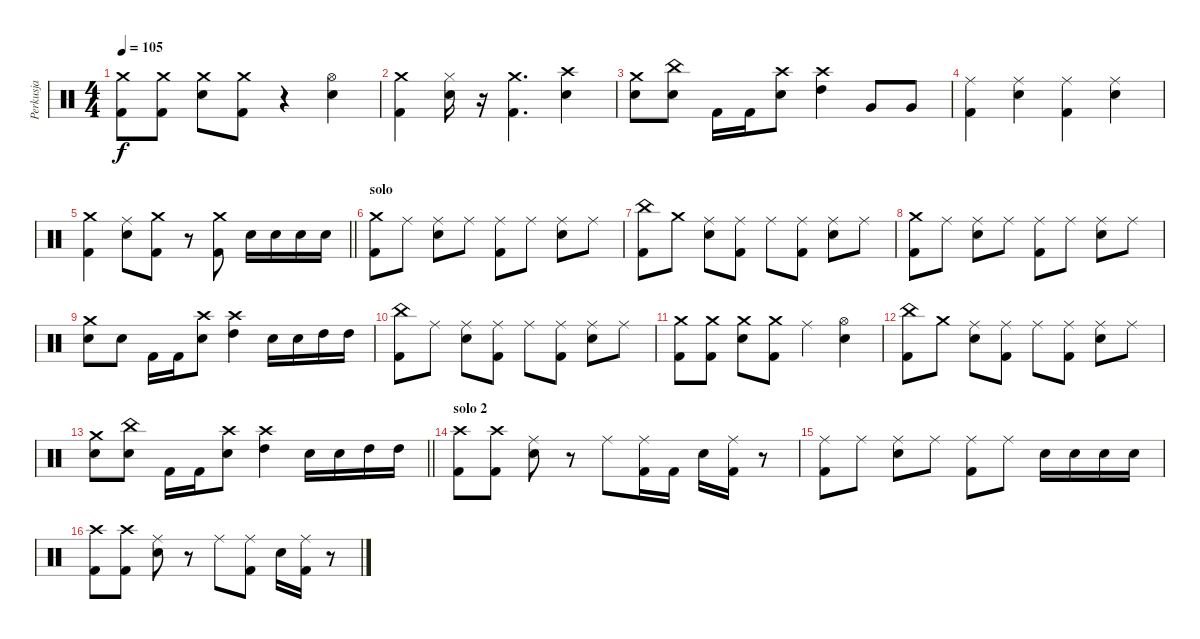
\track ("Perkusja" "Perkusja") {instrument percussion}
\staff {score}
\articulation defaults
\ts (4 4)
\tempo 105
\clef neutral
\ks c
("Crash medium (hit)" "Kick (hit) 2").8{dy f} ("Crash medium (hit)" "Kick (hit) 2").8 ("Crash medium (hit)" "Snare (hit) 2").8 ("Crash medium (hit)" "Kick (hit) 2").8 r.4 ("Snare (hit) 2" "Hi-Hat (open)").4 |
("Kick (hit) 2" "Crash medium (hit)").4 ("Snare (hit) 2" "Hi-Hat (closed)").16 r.16 ("Kick (hit) 2" "Crash medium (hit)").4{d} ("Snare (hit) 2" "Crash high (hit)").4 |
("Crash medium (hit)" "Snare (hit) 2").8 ("China (hit)" "Snare (hit) 2").8 "Kick (hit) 2".16 "Kick (hit) 2".16 ("Crash high (hit)" "Snare (hit) 2").8 ("Crash high (hit)" "High Tom (hit)").4 "Very Low Tom (hit)".8 "Very Low Tom (hit)".8 |
("Ride (middle)" "Kick (hit) 2").4 ("Ride (middle)" "Snare (hit) 2").4 ("Ride (middle)" "Kick (hit) 2").4 ("Ride (middle)" "Snare (hit) 2").4 |
\barLineRight lightlight
("Crash medium (hit)" "Kick (hit) 2").4 ("Ride (middle)" "Snare (hit) 2").8 ("Crash medium (hit)" "Kick (hit) 2").8 r.8 ("Crash medium (hit)" "Kick (hit) 2").8 "Snare (hit) 2".16 "Snare (hit) 2".16 "Snare (hit) 2".16 "Snare (hit) 2".16 |
\section ("" "solo")
("Crash medium (hit)" "Kick (hit) 2").8 "Ride (middle)".8 ("Ride (middle)" "Snare (hit) 2").8 "Ride (middle)".8 ("Ride (middle)" "Kick (hit) 2").8 "Ride (middle)".8 ("Ride (middle)" "Snare (hit) 2").8 "Ride (middle)".8 |
("China (hit)" "Kick (hit) 2").8 "Crash medium (hit)".8 ("Ride (middle)" "Snare (hit) 2").8 ("Ride (middle)" "Kick (hit) 2").8 "Ride (middle)".8 ("Ride (middle)" "Kick (hit) 2").8 ("Ride (middle)" "Snare (hit) 2").8 "Ride (middle)".8 |
("Crash medium (hit)" "Kick (hit) 2").8 "Ride (middle)".8 ("Ride (middle)" "Snare (hit) 2").8 "Ride (middle)".8 ("Ride (middle)" "Kick (hit) 2").8 "Ride (middle)".8 ("Ride (middle)" "Snare (hit) 2").8 "Ride (middle)".8 |
("Crash medium (hit)" "Snare (hit) 2").8 "Snare (hit) 2".8 "Kick (hit) 2".16 "Kick (hit) 2".16 ("Crash high (hit)" "Snare (hit) 2").8 ("Crash high (hit)" "High Tom (hit)").4 "Snare (hit) 2".16 "Snare (hit) 2".16 "High Tom (hit)".16 "High Tom (hit)".16 |
("China (hit)" "Kick (hit) 2").8 "Ride (middle)".8 ("Ride (middle)" "Snare (hit) 2").8 ("Ride (middle)" "Kick (hit) 2").8 "Ride (middle)".8 ("Ride (middle)" "Kick (hit) 2").8 ("Ride (middle)" "Snare (hit) 2").8 "Ride (middle)".8 |
("Crash medium (hit)" "Kick (hit) 2").8 ("Crash medium (hit)" "Kick (hit) 2").8 ("Crash medium (hit)" "Snare (hit) 2").8 ("Crash medium (hit)" "Kick (hit) 2").8 "Ride (middle)".4 ("Snare (hit) 2" "Hi-Hat (open)").4 |
("China (hit)" "Kick (hit) 2").8 "Crash medium (hit)".8 ("Ride (middle)" "Snare (hit) 2").8 ("Ride (middle)" "Kick (hit) 2").8 "Ride (middle)".8 ("Ride (middle)" "Kick (hit) 2").8 ("Ride (middle)" "Snare (hit) 2").8 "Ride (middle)".8 |
\barLineRight lightlight
("Crash medium (hit)" "Snare (hit) 2").8 ("China (hit)" "Snare (hit) 2").8 "Kick (hit) 2".16 "Kick (hit) 2".16 ("Crash high (hit)" "Snare (hit) 2").8 ("Crash high (hit)" "High Tom (hit)").4 "Snare (hit) 2".16 "Snare (hit) 2".16 "High Tom (hit)".16 "High Tom (hit)".16 |
\section ("" "solo 2")
("Kick (hit) 2" "Crash high (hit)").8 ("Kick (hit) 2" "Crash high (hit)").8 ("Ride (middle)" "Snare (hit) 2").8 r.8 "Ride (middle)".8 ("Kick (hit) 2" "Ride (middle)").16 "Kick (hit) 2".16 "Snare (hit) 2".16 ("Ride (middle)" "Kick (hit) 2").16 r.8 |
("Ride (middle)" "Kick (hit) 2").8 "Ride (middle)".8 ("Ride (middle)" "Snare (hit) 2").8 "Ride (middle)".8 ("Ride (middle)" "Kick (hit) 2").8 "Ride (middle)".8 "Snare (hit) 2".16 "Snare (hit) 2".16 "Snare (hit) 2".16 "Snare (hit) 2".16 |
("Kick (hit) 2" "Crash high (hit)").8 ("Kick (hit) 2" "Crash high (hit)").8 ("Ride (middle)" "Snare (hit) 2").8 r.8 "Ride (middle)".8 ("Kick (hit) 2" "Ride (middle)").8 "Snare (hit) 2".16 ("Ride (middle)" "Kick (hit) 2").16 r.8
